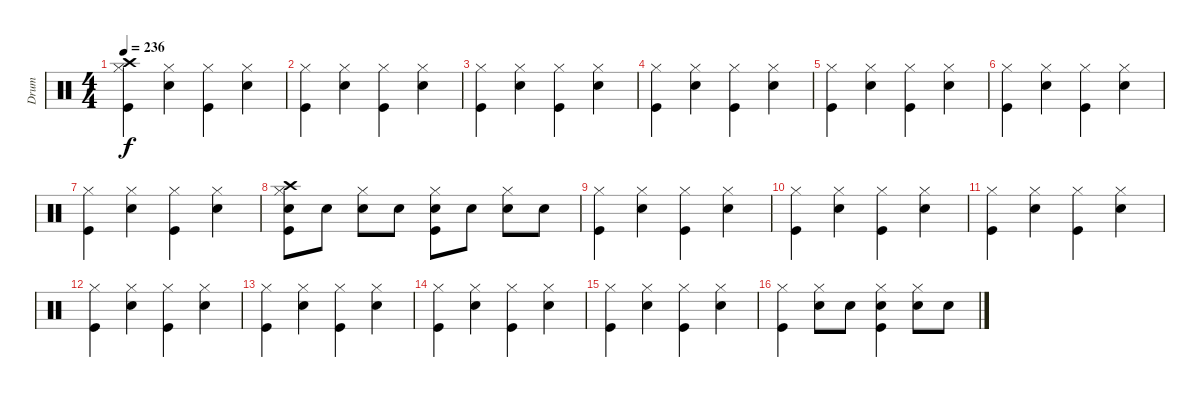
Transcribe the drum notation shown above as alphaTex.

\track ("Drum" "Drum") {instrument percussion}
\staff {score}
\articulation defaults
\ts (4 4)
\tempo 236
\clef neutral
\ks c
("Crash high (hit)" "Hi-Hat (closed)" "Kick (hit)").4{dy f} ("Hi-Hat (closed)" "Snare (hit) 2").4 ("Hi-Hat (closed)" "Kick (hit)").4 ("Hi-Hat (closed)" "Snare (hit) 2").4 |
("Hi-Hat (closed)" "Kick (hit)").4 ("Hi-Hat (closed)" "Snare (hit) 2").4 ("Hi-Hat (closed)" "Kick (hit)").4 ("Hi-Hat (closed)" "Snare (hit) 2").4 |
("Hi-Hat (closed)" "Kick (hit)").4 ("Hi-Hat (closed)" "Snare (hit) 2").4 ("Hi-Hat (closed)" "Kick (hit)").4 ("Hi-Hat (closed)" "Snare (hit) 2").4 |
("Hi-Hat (closed)" "Kick (hit)").4 ("Hi-Hat (closed)" "Snare (hit) 2").4 ("Hi-Hat (closed)" "Kick (hit)").4 ("Hi-Hat (closed)" "Snare (hit) 2").4 |
("Hi-Hat (closed)" "Kick (hit)").4 ("Hi-Hat (closed)" "Snare (hit) 2").4 ("Hi-Hat (closed)" "Kick (hit)").4 ("Hi-Hat (closed)" "Snare (hit) 2").4 |
("Hi-Hat (closed)" "Kick (hit)").4 ("Hi-Hat (closed)" "Snare (hit) 2").4 ("Hi-Hat (closed)" "Kick (hit)").4 ("Hi-Hat (closed)" "Snare (hit) 2").4 |
("Hi-Hat (closed)" "Kick (hit)").4 ("Hi-Hat (closed)" "Snare (hit) 2").4 ("Hi-Hat (closed)" "Kick (hit)").4 ("Hi-Hat (closed)" "Snare (hit) 2").4 |
("Crash high (hit)" "Hi-Hat (closed)" "Snare (hit) 2" "Kick (hit)").8 "Snare (hit) 2".8 ("Hi-Hat (closed)" "Snare (hit) 2").8 "Snare (hit) 2".8 ("Hi-Hat (closed)" "Snare (hit) 2" "Kick (hit)").8 "Snare (hit) 2".8 ("Hi-Hat (closed)" "Snare (hit) 2").8 "Snare (hit) 2".8 |
("Hi-Hat (closed)" "Kick (hit)").4 ("Hi-Hat (closed)" "Snare (hit) 2").4 ("Hi-Hat (closed)" "Kick (hit)").4 ("Hi-Hat (closed)" "Snare (hit) 2").4 |
("Hi-Hat (closed)" "Kick (hit)").4 ("Hi-Hat (closed)" "Snare (hit) 2").4 ("Hi-Hat (closed)" "Kick (hit)").4 ("Hi-Hat (closed)" "Snare (hit) 2").4 |
("Hi-Hat (closed)" "Kick (hit)").4 ("Hi-Hat (closed)" "Snare (hit) 2").4 ("Hi-Hat (closed)" "Kick (hit)").4 ("Hi-Hat (closed)" "Snare (hit) 2").4 |
("Hi-Hat (closed)" "Kick (hit)").4 ("Hi-Hat (closed)" "Snare (hit) 2").4 ("Hi-Hat (closed)" "Kick (hit)").4 ("Hi-Hat (closed)" "Snare (hit) 2").4 |
("Hi-Hat (closed)" "Kick (hit)").4 ("Hi-Hat (closed)" "Snare (hit) 2").4 ("Hi-Hat (closed)" "Kick (hit)").4 ("Hi-Hat (closed)" "Snare (hit) 2").4 |
("Hi-Hat (closed)" "Kick (hit)").4 ("Hi-Hat (closed)" "Snare (hit) 2").4 ("Hi-Hat (closed)" "Kick (hit)").4 ("Hi-Hat (closed)" "Snare (hit) 2").4 |
("Hi-Hat (closed)" "Kick (hit)").4 ("Hi-Hat (closed)" "Snare (hit) 2").4 ("Hi-Hat (closed)" "Kick (hit)").4 ("Hi-Hat (closed)" "Snare (hit) 2").4 |
("Hi-Hat (closed)" "Kick (hit)").4 ("Hi-Hat (closed)" "Snare (hit) 2").8 "Snare (hit) 2".8 ("Hi-Hat (closed)" "Snare (hit) 2" "Kick (hit)").4 ("Hi-Hat (closed)" "Snare (hit) 2").8 "Snare (hit) 2".8
